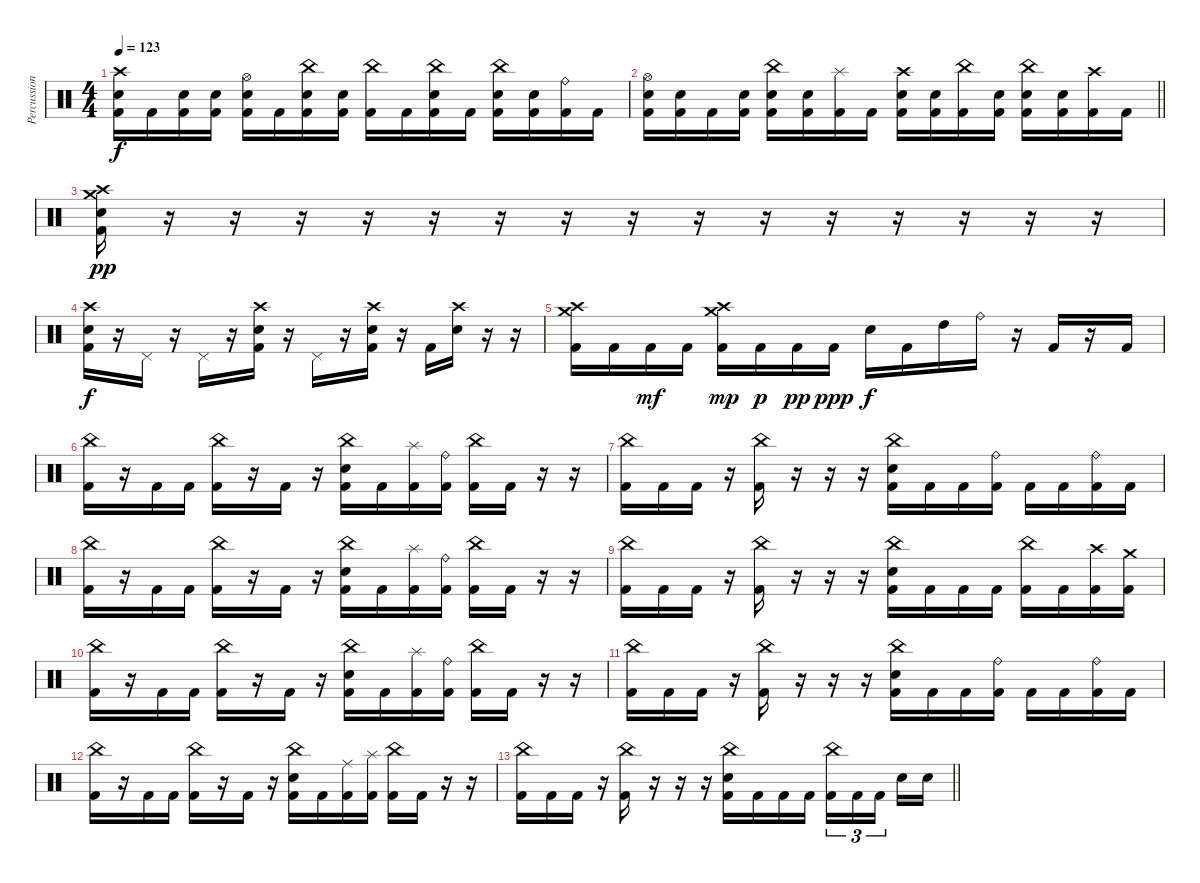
\track ("Percussion" "Percussion") {instrument percussion}
\staff {score}
\articulation defaults
\ts (4 4)
\tempo 123
\clef neutral
\ks c
("Crash high (hit)" "Electric Snare (hit)" "Kick (hit) 2").16{dy f} "Kick (hit) 2".16 ("Electric Snare (hit)" "Kick (hit) 2").16 ("Electric Snare (hit)" "Kick (hit) 2").16 ("Hi-Hat (open)" "Electric Snare (hit)" "Kick (hit) 2").16 "Kick (hit) 2".16 ("China (hit)" "Electric Snare (hit)" "Kick (hit) 2").16 ("Electric Snare (hit)" "Kick (hit) 2").16 ("China (hit)" "Kick (hit) 2").16 "Kick (hit) 2".16 ("China (hit)" "Electric Snare (hit)" "Kick (hit) 2").16 "Kick (hit) 2".16 ("China (hit)" "Electric Snare (hit)" "Kick (hit) 2").16 ("Electric Snare (hit)" "Kick (hit) 2").16 ("Ride (bell)" "Kick (hit) 2").16 "Kick (hit) 2".16 |
\barLineRight lightlight
("Hi-Hat (open)" "Electric Snare (hit)" "Kick (hit) 2").16 ("Electric Snare (hit)" "Kick (hit) 2").16 "Kick (hit) 2".16 ("Electric Snare (hit)" "Kick (hit) 2").16 ("China (hit)" "Electric Snare (hit)" "Kick (hit) 2").16 ("Electric Snare (hit)" "Kick (hit) 2").16 ("Splash (hit)" "Kick (hit) 2").16 "Kick (hit) 2".16 ("Crash high (hit)" "Electric Snare (hit)" "Kick (hit) 2").16 ("Electric Snare (hit)" "Kick (hit) 2").16 ("China (hit)" "Kick (hit) 2").16 ("Electric Snare (hit)" "Kick (hit) 2").16 ("China (hit)" "Electric Snare (hit)" "Kick (hit) 2").16 ("Electric Snare (hit)" "Kick (hit) 2").16 ("Crash high (hit)" "Kick (hit) 2").16 "Kick (hit) 2".16 |
("Crash high (hit)" "Crash medium (hit)" "Electric Snare (hit)" "Kick (hit) 2").16{dy pp} r.16 r.16 r.16 r.16 r.16 r.16 r.16 r.16 r.16 r.16 r.16 r.16 r.16 r.16 r.16 |
("Crash high (hit)" "Electric Snare (hit)" "Kick (hit) 2").16{dy f} r.16 "Pedal Hi-Hat (hit)".16 r.16 "Pedal Hi-Hat (hit)".16 r.16 ("Crash high (hit)" "Electric Snare (hit)" "Kick (hit) 2").16 r.16 "Pedal Hi-Hat (hit)".16 r.16 ("Crash high (hit)" "Electric Snare (hit)" "Kick (hit) 2").16 r.16 "Kick (hit) 2".16 ("Crash high (hit)" "Electric Snare (hit)").16 r.16 r.16 |
("Crash high (hit)" "Crash medium (hit)" "Kick (hit) 2").16 "Kick (hit) 2".16 "Kick (hit) 2".16{dy mf} "Kick (hit) 2".16 ("Crash high (hit)" "Crash medium (hit)" "Kick (hit) 2").16{dy mp} "Kick (hit) 2".16{dy p} "Kick (hit) 2".16{dy pp} "Kick (hit) 2".16{dy ppp} "Electric Snare (hit)".16{dy f} "Kick (hit) 2".16 "High Tom (hit)".16 "Ride (bell)".16 r.16 "Kick (hit) 2".16 r.16 "Kick (hit) 2".16 |
("China (hit)" "Kick (hit) 2").16 r.16 "Kick (hit) 2".16 "Kick (hit) 2".16 ("China (hit)" "Kick (hit) 2").16 r.16 "Kick (hit) 2".16 r.16 ("China (hit)" "Electric Snare (hit)" "Kick (hit) 2").16 "Kick (hit) 2".16 ("Splash (hit)" "Kick (hit) 2").16 ("Ride (bell)" "Kick (hit) 2").16 ("China (hit)" "Kick (hit) 2").16 "Kick (hit) 2".16 r.16 r.16 |
("China (hit)" "Kick (hit) 2").16 "Kick (hit) 2".16 "Kick (hit) 2".16 r.16 ("China (hit)" "Kick (hit) 2").16 r.16 r.16 r.16 ("China (hit)" "Electric Snare (hit)" "Kick (hit) 2").16 "Kick (hit) 2".16 "Kick (hit) 2".16 ("Ride (bell)" "Kick (hit) 2").16 "Kick (hit) 2".16 "Kick (hit) 2".16 ("Ride (bell)" "Kick (hit) 2").16 "Kick (hit) 2".16 |
("China (hit)" "Kick (hit) 2").16 r.16 "Kick (hit) 2".16 "Kick (hit) 2".16 ("China (hit)" "Kick (hit) 2").16 r.16 "Kick (hit) 2".16 r.16 ("China (hit)" "Electric Snare (hit)" "Kick (hit) 2").16 "Kick (hit) 2".16 ("Splash (hit)" "Kick (hit) 2").16 ("Ride (bell)" "Kick (hit) 2").16 ("China (hit)" "Kick (hit) 2").16 "Kick (hit) 2".16 r.16 r.16 |
("China (hit)" "Kick (hit) 2").16 "Kick (hit) 2".16 "Kick (hit) 2".16 r.16 ("China (hit)" "Kick (hit) 2").16 r.16 r.16 r.16 ("China (hit)" "Electric Snare (hit)" "Kick (hit) 2").16 "Kick (hit) 2".16 "Kick (hit) 2".16 "Kick (hit) 2".16 ("China (hit)" "Kick (hit) 2").16 "Kick (hit) 2".16 ("Crash high (hit)" "Kick (hit) 2").16 ("Crash medium (hit)" "Kick (hit) 2").16 |
("China (hit)" "Kick (hit) 2").16 r.16 "Kick (hit) 2".16 "Kick (hit) 2".16 ("China (hit)" "Kick (hit) 2").16 r.16 "Kick (hit) 2".16 r.16 ("China (hit)" "Electric Snare (hit)" "Kick (hit) 2").16 "Kick (hit) 2".16 ("Splash (hit)" "Kick (hit) 2").16 ("Ride (bell)" "Kick (hit) 2").16 ("China (hit)" "Kick (hit) 2").16 "Kick (hit) 2".16 r.16 r.16 |
("China (hit)" "Kick (hit) 2").16 "Kick (hit) 2".16 "Kick (hit) 2".16 r.16 ("China (hit)" "Kick (hit) 2").16 r.16 r.16 r.16 ("China (hit)" "Electric Snare (hit)" "Kick (hit) 2").16 "Kick (hit) 2".16 "Kick (hit) 2".16 ("Ride (bell)" "Kick (hit) 2").16 "Kick (hit) 2".16 "Kick (hit) 2".16 ("Ride (bell)" "Kick (hit) 2").16 "Kick (hit) 2".16 |
("China (hit)" "Kick (hit) 2").16 r.16 "Kick (hit) 2".16 "Kick (hit) 2".16 ("China (hit)" "Kick (hit) 2").16 r.16 "Kick (hit) 2".16 r.16 ("China (hit)" "Electric Snare (hit)" "Kick (hit) 2").16 "Kick (hit) 2".16 ("Ride (middle)" "Kick (hit) 2").16 ("Splash (hit)" "Kick (hit) 2").16 ("China (hit)" "Kick (hit) 2").16 "Kick (hit) 2".16 r.16 r.16 |
\barLineRight lightlight
("China (hit)" "Kick (hit) 2").16 "Kick (hit) 2".16 "Kick (hit) 2".16 r.16 ("China (hit)" "Kick (hit) 2").16 r.16 r.16 r.16 ("China (hit)" "Electric Snare (hit)" "Kick (hit) 2").16 "Kick (hit) 2".16 "Kick (hit) 2".16 "Kick (hit) 2".16 ("China (hit)" "Kick (hit) 2").16{tu (3 2)} "Kick (hit) 2".16{tu (3 2)} "Kick (hit) 2".16{tu (3 2) beam splitsecondary} "Electric Snare (hit)".16 "Electric Snare (hit)".16
